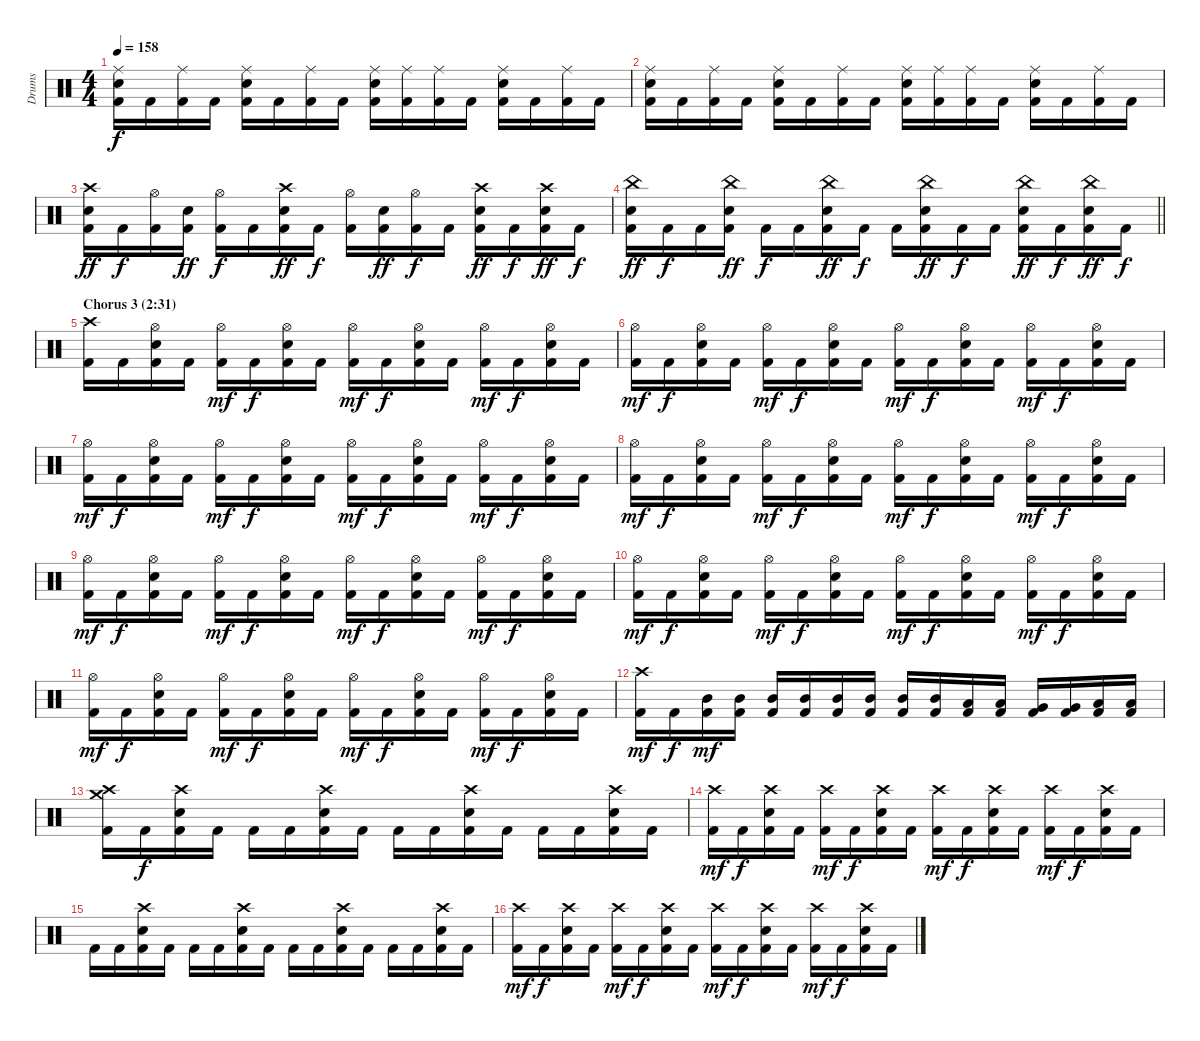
\track ("Drums" "Drums") {instrument percussion}
\staff {score}
\articulation defaults
\ts (4 4)
\tempo 158
\clef neutral
\ks c
("Ride (middle)" "Electric Snare (hit)" "Kick (hit) 2").16{dy f} "Kick (hit) 2".16 ("Ride (middle)" "Kick (hit) 2").16 "Kick (hit) 2".16 ("Ride (middle)" "Electric Snare (hit)" "Kick (hit) 2").16 "Kick (hit) 2".16 ("Ride (middle)" "Kick (hit) 2").16 "Kick (hit) 2".16 ("Ride (middle)" "Electric Snare (hit)" "Kick (hit) 2").16 ("Ride (middle)" "Kick (hit) 2").16 ("Ride (middle)" "Kick (hit) 2").16 "Kick (hit) 2".16 ("Ride (middle)" "Electric Snare (hit)" "Kick (hit) 2").16 "Kick (hit) 2".16 ("Ride (middle)" "Kick (hit) 2").16 "Kick (hit) 2".16 |
("Ride (middle)" "Electric Snare (hit)" "Kick (hit) 2").16 "Kick (hit) 2".16 ("Ride (middle)" "Kick (hit) 2").16 "Kick (hit) 2".16 ("Ride (middle)" "Electric Snare (hit)" "Kick (hit) 2").16 "Kick (hit) 2".16 ("Ride (middle)" "Kick (hit) 2").16 "Kick (hit) 2".16 ("Ride (middle)" "Electric Snare (hit)" "Kick (hit) 2").16 ("Ride (middle)" "Kick (hit) 2").16 ("Ride (middle)" "Kick (hit) 2").16 "Kick (hit) 2".16 ("Ride (middle)" "Electric Snare (hit)" "Kick (hit) 2").16 "Kick (hit) 2".16 ("Ride (middle)" "Kick (hit) 2").16 "Kick (hit) 2".16 |
("Crash high (hit)" "Electric Snare (hit)" "Kick (hit) 2").16{dy ff} "Kick (hit) 2".16{dy f} ("Hi-Hat (open)" "Kick (hit) 2").16 ("Electric Snare (hit)" "Kick (hit) 2").16{dy ff} ("Hi-Hat (open)" "Kick (hit) 2").16{dy f} "Kick (hit) 2".16 ("Crash high (hit)" "Electric Snare (hit)" "Kick (hit) 2").16{dy ff} "Kick (hit) 2".16{dy f} ("Hi-Hat (open)" "Kick (hit) 2").16 ("Electric Snare (hit)" "Kick (hit) 2").16{dy ff} ("Hi-Hat (open)" "Kick (hit) 2").16{dy f} "Kick (hit) 2".16 ("Crash high (hit)" "Electric Snare (hit)" "Kick (hit) 2").16{dy ff} "Kick (hit) 2".16{dy f} ("Crash high (hit)" "Electric Snare (hit)" "Kick (hit) 2").16{dy ff} "Kick (hit) 2".16{dy f} |
\barLineRight lightlight
("China (hit)" "Electric Snare (hit)" "Kick (hit) 2").16{dy ff} "Kick (hit) 2".16{dy f} "Kick (hit) 2".16 ("China (hit)" "Electric Snare (hit)" "Kick (hit) 2").16{dy ff} "Kick (hit) 2".16{dy f} "Kick (hit) 2".16 ("China (hit)" "Electric Snare (hit)" "Kick (hit) 2").16{dy ff} "Kick (hit) 2".16{dy f} "Kick (hit) 2".16 ("China (hit)" "Electric Snare (hit)" "Kick (hit) 2").16{dy ff} "Kick (hit) 2".16{dy f} "Kick (hit) 2".16 ("China (hit)" "Electric Snare (hit)" "Kick (hit) 2").16{dy ff} "Kick (hit) 2".16{dy f} ("China (hit)" "Electric Snare (hit)" "Kick (hit) 2").16{dy ff} "Kick (hit) 2".16{dy f} |
\section ("" "Chorus 3 (2:31)")
("Crash high (hit)" "Kick (hit) 2").16 "Kick (hit) 2".16 ("Hi-Hat (open)" "Electric Snare (hit)" "Kick (hit) 2").16 "Kick (hit) 2".16 ("Hi-Hat (open)" "Kick (hit) 2").16{dy mf} "Kick (hit) 2".16{dy f} ("Hi-Hat (open)" "Electric Snare (hit)" "Kick (hit) 2").16 "Kick (hit) 2".16 ("Hi-Hat (open)" "Kick (hit) 2").16{dy mf} "Kick (hit) 2".16{dy f} ("Hi-Hat (open)" "Electric Snare (hit)" "Kick (hit) 2").16 "Kick (hit) 2".16 ("Hi-Hat (open)" "Kick (hit) 2").16{dy mf} "Kick (hit) 2".16{dy f} ("Hi-Hat (open)" "Electric Snare (hit)" "Kick (hit) 2").16 "Kick (hit) 2".16 |
("Hi-Hat (open)" "Kick (hit) 2").16{dy mf} "Kick (hit) 2".16{dy f} ("Hi-Hat (open)" "Electric Snare (hit)" "Kick (hit) 2").16 "Kick (hit) 2".16 ("Hi-Hat (open)" "Kick (hit) 2").16{dy mf} "Kick (hit) 2".16{dy f} ("Hi-Hat (open)" "Electric Snare (hit)" "Kick (hit) 2").16 "Kick (hit) 2".16 ("Hi-Hat (open)" "Kick (hit) 2").16{dy mf} "Kick (hit) 2".16{dy f} ("Hi-Hat (open)" "Electric Snare (hit)" "Kick (hit) 2").16 "Kick (hit) 2".16 ("Hi-Hat (open)" "Kick (hit) 2").16{dy mf} "Kick (hit) 2".16{dy f} ("Hi-Hat (open)" "Electric Snare (hit)" "Kick (hit) 2").16 "Kick (hit) 2".16 |
("Hi-Hat (open)" "Kick (hit) 2").16{dy mf} "Kick (hit) 2".16{dy f} ("Hi-Hat (open)" "Electric Snare (hit)" "Kick (hit) 2").16 "Kick (hit) 2".16 ("Hi-Hat (open)" "Kick (hit) 2").16{dy mf} "Kick (hit) 2".16{dy f} ("Hi-Hat (open)" "Electric Snare (hit)" "Kick (hit) 2").16 "Kick (hit) 2".16 ("Hi-Hat (open)" "Kick (hit) 2").16{dy mf} "Kick (hit) 2".16{dy f} ("Hi-Hat (open)" "Electric Snare (hit)" "Kick (hit) 2").16 "Kick (hit) 2".16 ("Hi-Hat (open)" "Kick (hit) 2").16{dy mf} "Kick (hit) 2".16{dy f} ("Hi-Hat (open)" "Electric Snare (hit)" "Kick (hit) 2").16 "Kick (hit) 2".16 |
("Hi-Hat (open)" "Kick (hit) 2").16{dy mf} "Kick (hit) 2".16{dy f} ("Hi-Hat (open)" "Electric Snare (hit)" "Kick (hit) 2").16 "Kick (hit) 2".16 ("Hi-Hat (open)" "Kick (hit) 2").16{dy mf} "Kick (hit) 2".16{dy f} ("Hi-Hat (open)" "Electric Snare (hit)" "Kick (hit) 2").16 "Kick (hit) 2".16 ("Hi-Hat (open)" "Kick (hit) 2").16{dy mf} "Kick (hit) 2".16{dy f} ("Hi-Hat (open)" "Electric Snare (hit)" "Kick (hit) 2").16 "Kick (hit) 2".16 ("Hi-Hat (open)" "Kick (hit) 2").16{dy mf} "Kick (hit) 2".16{dy f} ("Hi-Hat (open)" "Electric Snare (hit)" "Kick (hit) 2").16 "Kick (hit) 2".16 |
("Hi-Hat (open)" "Kick (hit) 2").16{dy mf} "Kick (hit) 2".16{dy f} ("Hi-Hat (open)" "Electric Snare (hit)" "Kick (hit) 2").16 "Kick (hit) 2".16 ("Hi-Hat (open)" "Kick (hit) 2").16{dy mf} "Kick (hit) 2".16{dy f} ("Hi-Hat (open)" "Electric Snare (hit)" "Kick (hit) 2").16 "Kick (hit) 2".16 ("Hi-Hat (open)" "Kick (hit) 2").16{dy mf} "Kick (hit) 2".16{dy f} ("Hi-Hat (open)" "Electric Snare (hit)" "Kick (hit) 2").16 "Kick (hit) 2".16 ("Hi-Hat (open)" "Kick (hit) 2").16{dy mf} "Kick (hit) 2".16{dy f} ("Hi-Hat (open)" "Electric Snare (hit)" "Kick (hit) 2").16 "Kick (hit) 2".16 |
("Hi-Hat (open)" "Kick (hit) 2").16{dy mf} "Kick (hit) 2".16{dy f} ("Hi-Hat (open)" "Electric Snare (hit)" "Kick (hit) 2").16 "Kick (hit) 2".16 ("Hi-Hat (open)" "Kick (hit) 2").16{dy mf} "Kick (hit) 2".16{dy f} ("Hi-Hat (open)" "Electric Snare (hit)" "Kick (hit) 2").16 "Kick (hit) 2".16 ("Hi-Hat (open)" "Kick (hit) 2").16{dy mf} "Kick (hit) 2".16{dy f} ("Hi-Hat (open)" "Electric Snare (hit)" "Kick (hit) 2").16 "Kick (hit) 2".16 ("Hi-Hat (open)" "Kick (hit) 2").16{dy mf} "Kick (hit) 2".16{dy f} ("Hi-Hat (open)" "Electric Snare (hit)" "Kick (hit) 2").16 "Kick (hit) 2".16 |
("Hi-Hat (open)" "Kick (hit) 2").16{dy mf} "Kick (hit) 2".16{dy f} ("Hi-Hat (open)" "Electric Snare (hit)" "Kick (hit) 2").16 "Kick (hit) 2".16 ("Hi-Hat (open)" "Kick (hit) 2").16{dy mf} "Kick (hit) 2".16{dy f} ("Hi-Hat (open)" "Electric Snare (hit)" "Kick (hit) 2").16 "Kick (hit) 2".16 ("Hi-Hat (open)" "Kick (hit) 2").16{dy mf} "Kick (hit) 2".16{dy f} ("Hi-Hat (open)" "Electric Snare (hit)" "Kick (hit) 2").16 "Kick (hit) 2".16 ("Hi-Hat (open)" "Kick (hit) 2").16{dy mf} "Kick (hit) 2".16{dy f} ("Hi-Hat (open)" "Electric Snare (hit)" "Kick (hit) 2").16 "Kick (hit) 2".16 |
("Crash high (hit)" "Kick (hit) 2").16{dy mf} "Kick (hit) 2".16{dy f} ("Mid Tom (hit)" "Kick (hit) 2").16{dy mf} ("Mid Tom (hit)" "Kick (hit) 2").16 ("Mid Tom (hit)" "Kick (hit) 2").16 ("Mid Tom (hit)" "Kick (hit) 2").16 ("Mid Tom (hit)" "Kick (hit) 2").16 ("Mid Tom (hit)" "Kick (hit) 2").16 ("Mid Tom (hit)" "Kick (hit) 2").16 ("Mid Tom (hit)" "Kick (hit) 2").16 ("Low Tom (hit)" "Kick (hit) 2").16 ("Low Tom (hit)" "Kick (hit) 2").16 ("Very Low Tom (hit)" "Kick (hit) 2").16 ("Very Low Tom (hit)" "Kick (hit) 2").16 ("Low Floor Tom (hit)" "Kick (hit) 2").16 ("Low Floor Tom (hit)" "Kick (hit) 2").16 |
("Crash high (hit)" "Crash medium (hit)" "Kick (hit) 2").16 "Kick (hit) 2".16{dy f} ("Crash high (hit)" "Electric Snare (hit)" "Kick (hit) 2").16 "Kick (hit) 2".16 "Kick (hit) 2".16 "Kick (hit) 2".16 ("Crash high (hit)" "Electric Snare (hit)" "Kick (hit) 2").16 "Kick (hit) 2".16 "Kick (hit) 2".16 "Kick (hit) 2".16 ("Crash high (hit)" "Electric Snare (hit)" "Kick (hit) 2").16 "Kick (hit) 2".16 "Kick (hit) 2".16 "Kick (hit) 2".16 ("Crash high (hit)" "Electric Snare (hit)" "Kick (hit) 2").16 "Kick (hit) 2".16 |
("Crash high (hit)" "Kick (hit) 2").16{dy mf} "Kick (hit) 2".16{dy f} ("Crash high (hit)" "Electric Snare (hit)" "Kick (hit) 2").16 "Kick (hit) 2".16 ("Crash high (hit)" "Kick (hit) 2").16{dy mf} "Kick (hit) 2".16{dy f} ("Crash high (hit)" "Electric Snare (hit)" "Kick (hit) 2").16 "Kick (hit) 2".16 ("Crash high (hit)" "Kick (hit) 2").16{dy mf} "Kick (hit) 2".16{dy f} ("Crash high (hit)" "Electric Snare (hit)" "Kick (hit) 2").16 "Kick (hit) 2".16 ("Crash high (hit)" "Kick (hit) 2").16{dy mf} "Kick (hit) 2".16{dy f} ("Crash high (hit)" "Electric Snare (hit)" "Kick (hit) 2").16 "Kick (hit) 2".16 |
"Kick (hit) 2".16 "Kick (hit) 2".16 ("Crash high (hit)" "Electric Snare (hit)" "Kick (hit) 2").16 "Kick (hit) 2".16 "Kick (hit) 2".16 "Kick (hit) 2".16 ("Crash high (hit)" "Electric Snare (hit)" "Kick (hit) 2").16 "Kick (hit) 2".16 "Kick (hit) 2".16 "Kick (hit) 2".16 ("Crash high (hit)" "Electric Snare (hit)" "Kick (hit) 2").16 "Kick (hit) 2".16 "Kick (hit) 2".16 "Kick (hit) 2".16 ("Crash high (hit)" "Electric Snare (hit)" "Kick (hit) 2").16 "Kick (hit) 2".16 |
("Crash high (hit)" "Kick (hit) 2").16{dy mf} "Kick (hit) 2".16{dy f} ("Crash high (hit)" "Electric Snare (hit)" "Kick (hit) 2").16 "Kick (hit) 2".16 ("Crash high (hit)" "Kick (hit) 2").16{dy mf} "Kick (hit) 2".16{dy f} ("Crash high (hit)" "Electric Snare (hit)" "Kick (hit) 2").16 "Kick (hit) 2".16 ("Crash high (hit)" "Kick (hit) 2").16{dy mf} "Kick (hit) 2".16{dy f} ("Crash high (hit)" "Electric Snare (hit)" "Kick (hit) 2").16 "Kick (hit) 2".16 ("Crash high (hit)" "Kick (hit) 2").16{dy mf} "Kick (hit) 2".16{dy f} ("Crash high (hit)" "Electric Snare (hit)" "Kick (hit) 2").16 "Kick (hit) 2".16
